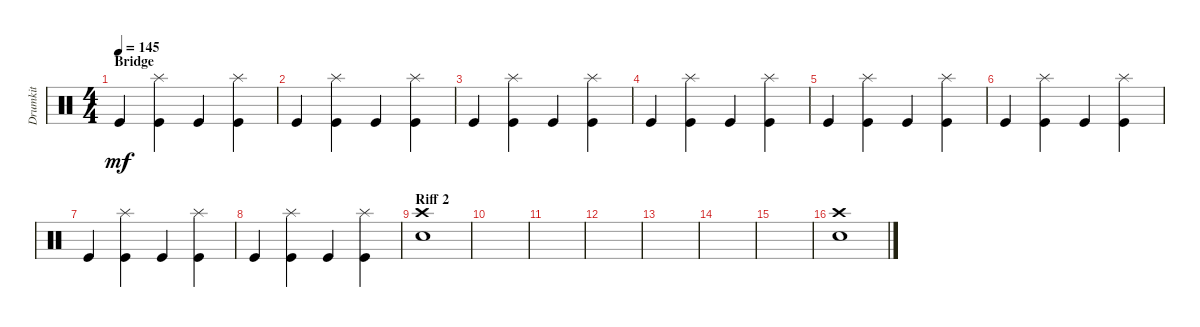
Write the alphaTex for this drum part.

\track ("Drumkit" "Drumkit") {instrument percussion}
\staff {score}
\articulation defaults
\ts (4 4)
\section ("" "Bridge")
\tempo 145
\clef neutral
\ks c "Kick (hit)".4{dy mf}
("Kick (hit)" "Splash (hit)").4 "Kick (hit)".4 ("Kick (hit)" "Splash (hit)").4 |
"Kick (hit)".4 ("Kick (hit)" "Splash (hit)").4 "Kick (hit)".4 ("Kick (hit)" "Splash (hit)").4 |
"Kick (hit)".4 ("Kick (hit)" "Splash (hit)").4 "Kick (hit)".4 ("Kick (hit)" "Splash (hit)").4 |
"Kick (hit)".4 ("Kick (hit)" "Splash (hit)").4 "Kick (hit)".4 ("Kick (hit)" "Splash (hit)").4 |
"Kick (hit)".4 ("Kick (hit)" "Splash (hit)").4 "Kick (hit)".4 ("Kick (hit)" "Splash (hit)").4 |
"Kick (hit)".4 ("Kick (hit)" "Splash (hit)").4 "Kick (hit)".4 ("Kick (hit)" "Splash (hit)").4 |
"Kick (hit)".4 ("Kick (hit)" "Splash (hit)").4 "Kick (hit)".4 ("Kick (hit)" "Splash (hit)").4 |
"Kick (hit)".4 ("Kick (hit)" "Splash (hit)").4 "Kick (hit)".4 ("Kick (hit)" "Splash (hit)").4 |
\section ("" "Riff 2")
("Crash high (hit)" "Electric Snare (hit)").1 |
|
|
|
|
|
|
("Crash high (hit)" "Electric Snare (hit)").1
